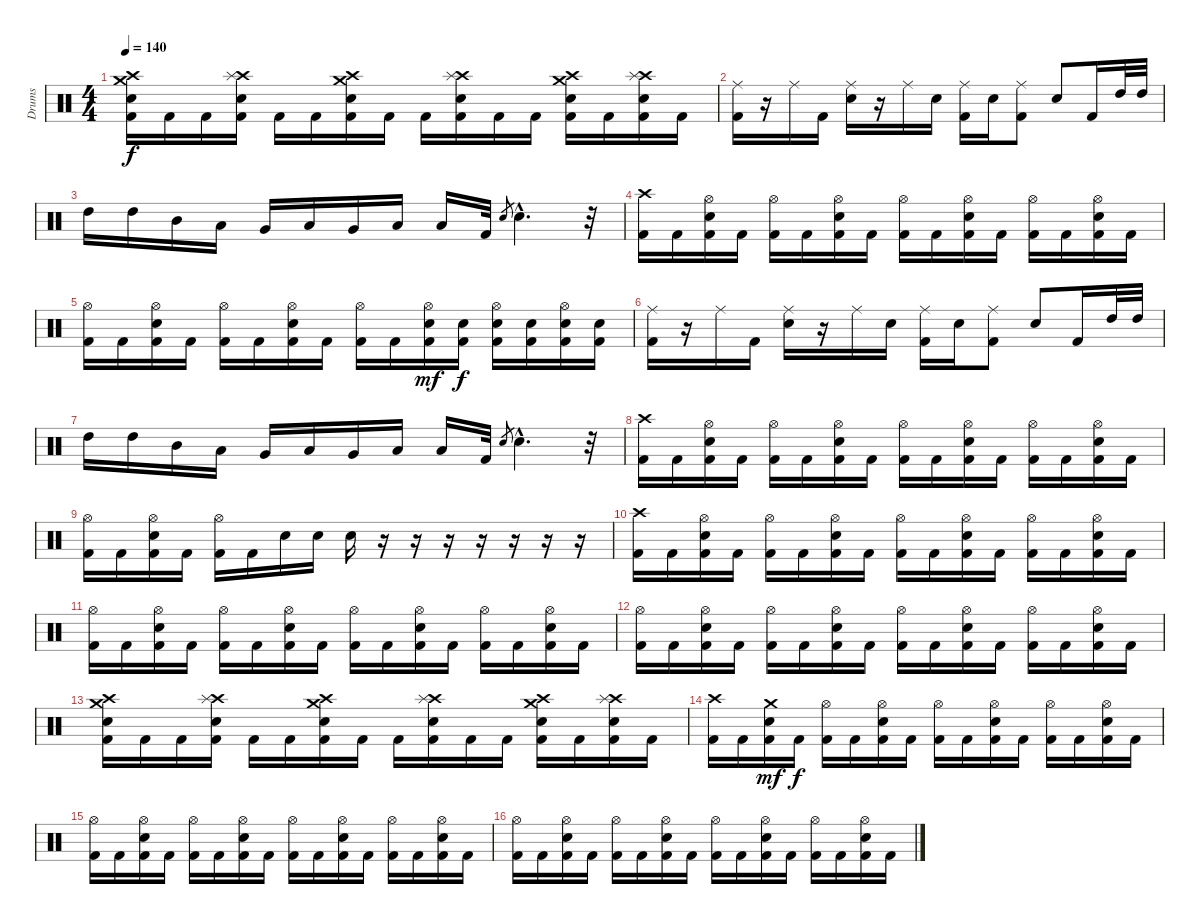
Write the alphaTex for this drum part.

\track ("Drums" "Drums") {instrument percussion}
\staff {score}
\articulation defaults
\ts (4 4)
\tempo 140
\clef neutral
\ks c
("Crash high (hit)" "Crash medium (hit)" "Electric Snare (hit)" "Kick (hit) 2").16{dy f} "Kick (hit) 2".16 "Kick (hit) 2".16 ("Crash high (hit)" "Splash (hit)" "Electric Snare (hit)" "Kick (hit) 2").16 "Kick (hit) 2".16 "Kick (hit) 2".16 ("Crash high (hit)" "Crash medium (hit)" "Electric Snare (hit)" "Kick (hit) 2").16 "Kick (hit) 2".16 "Kick (hit) 2".16 ("Crash high (hit)" "Splash (hit)" "Electric Snare (hit)" "Kick (hit) 2").16 "Kick (hit) 2".16 "Kick (hit) 2".16 ("Crash high (hit)" "Crash medium (hit)" "Electric Snare (hit)" "Kick (hit) 2").16 "Kick (hit) 2".16 ("Crash high (hit)" "Splash (hit)" "Electric Snare (hit)" "Kick (hit) 2").16 "Kick (hit) 2".16 |
("Ride (middle)" "Kick (hit) 2").16 r.16 "Ride (middle)".16 "Kick (hit) 2".16 ("Ride (middle)" "Electric Snare (hit)").16 r.16 "Ride (middle)".16 "Electric Snare (hit)".16 ("Ride (middle)" "Kick (hit) 2").16 "Electric Snare (hit)".16 ("Ride (middle)" "Kick (hit) 2").8 "Electric Snare (hit)".8 "Kick (hit) 2".16 "High Tom (hit)".32 "High Tom (hit)".32 |
"High Tom (hit)".16 "High Tom (hit)".16 "Mid Tom (hit)".16 "Low Tom (hit)".16 "Very Low Tom (hit)".16 "Low Tom (hit)".16 "Very Low Tom (hit)".16 "Low Floor Tom (hit)".16 "Low Floor Tom (hit)".16 "Kick (hit) 2".32 "Electric Snare (hit)".8{gr} "Electric Snare (hit)"{hac}.4{d} r.32 |
("Crash high (hit)" "Kick (hit) 2").16 "Kick (hit) 2".16 ("Hi-Hat (open)" "Electric Snare (hit)" "Kick (hit) 2").16 "Kick (hit) 2".16 ("Hi-Hat (open)" "Kick (hit) 2").16 "Kick (hit) 2".16 ("Hi-Hat (open)" "Electric Snare (hit)" "Kick (hit) 2").16 "Kick (hit) 2".16 ("Hi-Hat (open)" "Kick (hit) 2").16 "Kick (hit) 2".16 ("Hi-Hat (open)" "Electric Snare (hit)" "Kick (hit) 2").16 "Kick (hit) 2".16 ("Hi-Hat (open)" "Kick (hit) 2").16 "Kick (hit) 2".16 ("Hi-Hat (open)" "Electric Snare (hit)" "Kick (hit) 2").16 "Kick (hit) 2".16 |
("Hi-Hat (open)" "Kick (hit) 2").16 "Kick (hit) 2".16 ("Hi-Hat (open)" "Electric Snare (hit)" "Kick (hit) 2").16 "Kick (hit) 2".16 ("Hi-Hat (open)" "Kick (hit) 2").16 "Kick (hit) 2".16 ("Hi-Hat (open)" "Electric Snare (hit)" "Kick (hit) 2").16 "Kick (hit) 2".16 ("Hi-Hat (open)" "Kick (hit) 2").16 "Kick (hit) 2".16 ("Hi-Hat (open)" "Electric Snare (hit)" "Kick (hit) 2").16{dy mf} ("Electric Snare (hit)" "Kick (hit) 2").16{dy f} ("Hi-Hat (open)" "Electric Snare (hit)" "Kick (hit) 2").16 ("Electric Snare (hit)" "Kick (hit) 2").16 ("Hi-Hat (open)" "Electric Snare (hit)" "Kick (hit) 2").16 ("Electric Snare (hit)" "Kick (hit) 2").16 |
("Ride (middle)" "Kick (hit) 2").16 r.16 "Ride (middle)".16 "Kick (hit) 2".16 ("Ride (middle)" "Electric Snare (hit)").16 r.16 "Ride (middle)".16 "Electric Snare (hit)".16 ("Ride (middle)" "Kick (hit) 2").16 "Electric Snare (hit)".16 ("Ride (middle)" "Kick (hit) 2").8 "Electric Snare (hit)".8 "Kick (hit) 2".16 "High Tom (hit)".32 "High Tom (hit)".32 |
"High Tom (hit)".16 "High Tom (hit)".16 "Mid Tom (hit)".16 "Low Tom (hit)".16 "Very Low Tom (hit)".16 "Low Tom (hit)".16 "Very Low Tom (hit)".16 "Low Floor Tom (hit)".16 "Low Floor Tom (hit)".16 "Kick (hit) 2".32 "Electric Snare (hit)".8{gr} "Electric Snare (hit)"{hac}.4{d} r.32 |
("Crash high (hit)" "Kick (hit) 2").16 "Kick (hit) 2".16 ("Hi-Hat (open)" "Electric Snare (hit)" "Kick (hit) 2").16 "Kick (hit) 2".16 ("Hi-Hat (open)" "Kick (hit) 2").16 "Kick (hit) 2".16 ("Hi-Hat (open)" "Electric Snare (hit)" "Kick (hit) 2").16 "Kick (hit) 2".16 ("Hi-Hat (open)" "Kick (hit) 2").16 "Kick (hit) 2".16 ("Hi-Hat (open)" "Electric Snare (hit)" "Kick (hit) 2").16 "Kick (hit) 2".16 ("Hi-Hat (open)" "Kick (hit) 2").16 "Kick (hit) 2".16 ("Hi-Hat (open)" "Electric Snare (hit)" "Kick (hit) 2").16 "Kick (hit) 2".16 |
("Hi-Hat (open)" "Kick (hit) 2").16 "Kick (hit) 2".16 ("Hi-Hat (open)" "Electric Snare (hit)" "Kick (hit) 2").16 "Kick (hit) 2".16 ("Hi-Hat (open)" "Kick (hit) 2").16 "Kick (hit) 2".16 "Electric Snare (hit)".16 "Electric Snare (hit)".16 "Electric Snare (hit)".16 r.16 r.16 r.16 r.16 r.16 r.16 r.16 |
("Crash high (hit)" "Kick (hit) 2").16 "Kick (hit) 2".16 ("Hi-Hat (open)" "Electric Snare (hit)" "Kick (hit) 2").16 "Kick (hit) 2".16 ("Hi-Hat (open)" "Kick (hit) 2").16 "Kick (hit) 2".16 ("Hi-Hat (open)" "Electric Snare (hit)" "Kick (hit) 2").16 "Kick (hit) 2".16 ("Hi-Hat (open)" "Kick (hit) 2").16 "Kick (hit) 2".16 ("Hi-Hat (open)" "Electric Snare (hit)" "Kick (hit) 2").16 "Kick (hit) 2".16 ("Hi-Hat (open)" "Kick (hit) 2").16 "Kick (hit) 2".16 ("Hi-Hat (open)" "Electric Snare (hit)" "Kick (hit) 2").16 "Kick (hit) 2".16 |
("Hi-Hat (open)" "Kick (hit) 2").16 "Kick (hit) 2".16 ("Hi-Hat (open)" "Electric Snare (hit)" "Kick (hit) 2").16 "Kick (hit) 2".16 ("Hi-Hat (open)" "Kick (hit) 2").16 "Kick (hit) 2".16 ("Hi-Hat (open)" "Electric Snare (hit)" "Kick (hit) 2").16 "Kick (hit) 2".16 ("Hi-Hat (open)" "Kick (hit) 2").16 "Kick (hit) 2".16 ("Hi-Hat (open)" "Electric Snare (hit)" "Kick (hit) 2").16 "Kick (hit) 2".16 ("Hi-Hat (open)" "Kick (hit) 2").16 "Kick (hit) 2".16 ("Hi-Hat (open)" "Electric Snare (hit)" "Kick (hit) 2").16 "Kick (hit) 2".16 |
("Hi-Hat (open)" "Kick (hit) 2").16 "Kick (hit) 2".16 ("Hi-Hat (open)" "Electric Snare (hit)" "Kick (hit) 2").16 "Kick (hit) 2".16 ("Hi-Hat (open)" "Kick (hit) 2").16 "Kick (hit) 2".16 ("Hi-Hat (open)" "Electric Snare (hit)" "Kick (hit) 2").16 "Kick (hit) 2".16 ("Hi-Hat (open)" "Kick (hit) 2").16 "Kick (hit) 2".16 ("Hi-Hat (open)" "Electric Snare (hit)" "Kick (hit) 2").16 "Kick (hit) 2".16 ("Hi-Hat (open)" "Kick (hit) 2").16 "Kick (hit) 2".16 ("Hi-Hat (open)" "Electric Snare (hit)" "Kick (hit) 2").16 "Kick (hit) 2".16 |
("Crash high (hit)" "Crash medium (hit)" "Electric Snare (hit)" "Kick (hit) 2").16 "Kick (hit) 2".16 "Kick (hit) 2".16 ("Crash high (hit)" "Splash (hit)" "Electric Snare (hit)" "Kick (hit) 2").16 "Kick (hit) 2".16 "Kick (hit) 2".16 ("Crash high (hit)" "Crash medium (hit)" "Electric Snare (hit)" "Kick (hit) 2").16 "Kick (hit) 2".16 "Kick (hit) 2".16 ("Crash high (hit)" "Splash (hit)" "Electric Snare (hit)" "Kick (hit) 2").16 "Kick (hit) 2".16 "Kick (hit) 2".16 ("Crash high (hit)" "Crash medium (hit)" "Electric Snare (hit)" "Kick (hit) 2").16 "Kick (hit) 2".16 ("Crash high (hit)" "Splash (hit)" "Electric Snare (hit)" "Kick (hit) 2").16 "Kick (hit) 2".16 |
("Crash high (hit)" "Kick (hit) 2").16 "Kick (hit) 2".16 ("Crash medium (hit)" "Electric Snare (hit)" "Kick (hit) 2").16{dy mf} "Kick (hit) 2".16{dy f} ("Hi-Hat (open)" "Kick (hit) 2").16 "Kick (hit) 2".16 ("Hi-Hat (open)" "Electric Snare (hit)" "Kick (hit) 2").16 "Kick (hit) 2".16 ("Hi-Hat (open)" "Kick (hit) 2").16 "Kick (hit) 2".16 ("Hi-Hat (open)" "Electric Snare (hit)" "Kick (hit) 2").16 "Kick (hit) 2".16 ("Hi-Hat (open)" "Kick (hit) 2").16 "Kick (hit) 2".16 ("Hi-Hat (open)" "Electric Snare (hit)" "Kick (hit) 2").16 "Kick (hit) 2".16 |
("Hi-Hat (open)" "Kick (hit) 2").16 "Kick (hit) 2".16 ("Hi-Hat (open)" "Electric Snare (hit)" "Kick (hit) 2").16 "Kick (hit) 2".16 ("Hi-Hat (open)" "Kick (hit) 2").16 "Kick (hit) 2".16 ("Hi-Hat (open)" "Electric Snare (hit)" "Kick (hit) 2").16 "Kick (hit) 2".16 ("Hi-Hat (open)" "Kick (hit) 2").16 "Kick (hit) 2".16 ("Hi-Hat (open)" "Electric Snare (hit)" "Kick (hit) 2").16 "Kick (hit) 2".16 ("Hi-Hat (open)" "Kick (hit) 2").16 "Kick (hit) 2".16 ("Hi-Hat (open)" "Electric Snare (hit)" "Kick (hit) 2").16 "Kick (hit) 2".16 |
("Hi-Hat (open)" "Kick (hit) 2").16 "Kick (hit) 2".16 ("Hi-Hat (open)" "Electric Snare (hit)" "Kick (hit) 2").16 "Kick (hit) 2".16 ("Hi-Hat (open)" "Kick (hit) 2").16 "Kick (hit) 2".16 ("Hi-Hat (open)" "Electric Snare (hit)" "Kick (hit) 2").16 "Kick (hit) 2".16 ("Hi-Hat (open)" "Kick (hit) 2").16 "Kick (hit) 2".16 ("Hi-Hat (open)" "Electric Snare (hit)" "Kick (hit) 2").16 "Kick (hit) 2".16 ("Hi-Hat (open)" "Kick (hit) 2").16 "Kick (hit) 2".16 ("Hi-Hat (open)" "Electric Snare (hit)" "Kick (hit) 2").16 "Kick (hit) 2".16
